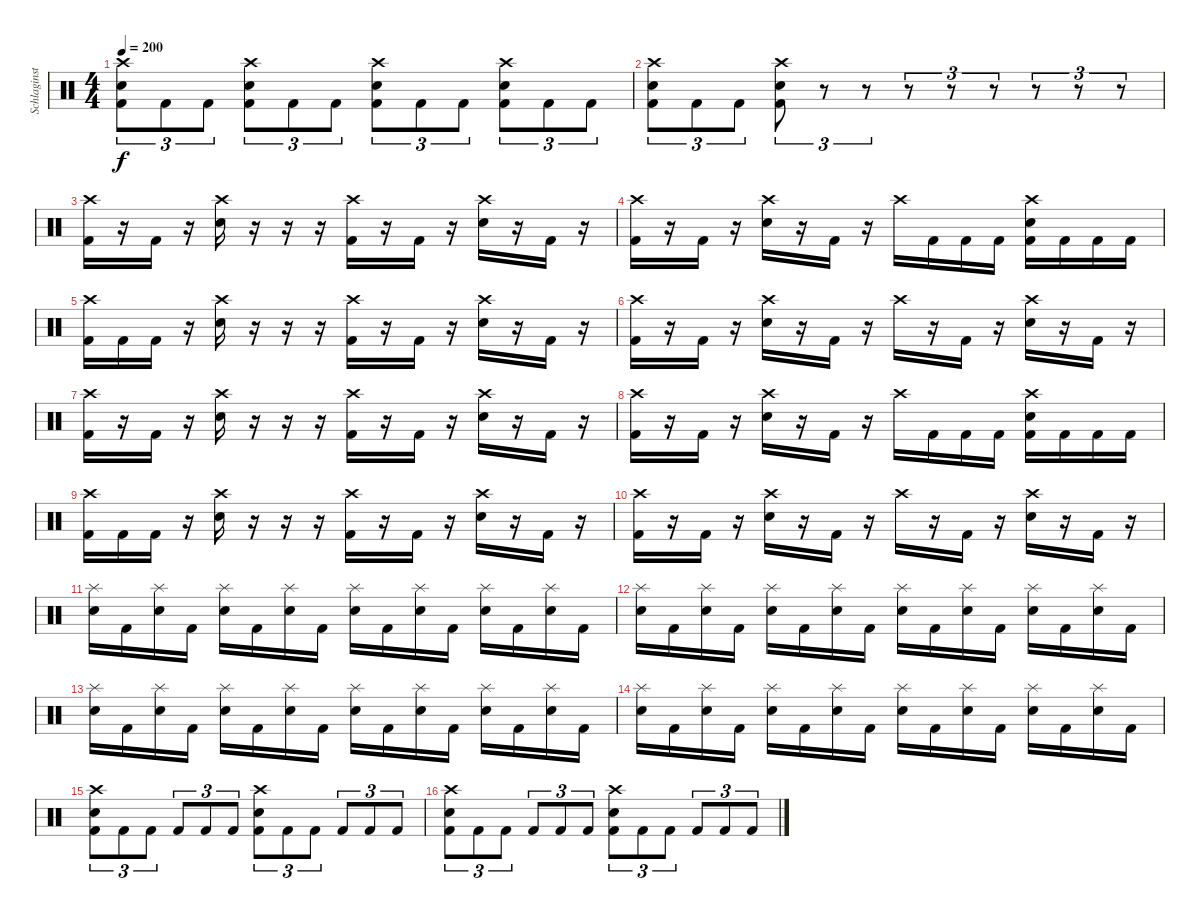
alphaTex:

\track ("Schlaginstrumente - Auswahl" "Schlaginst") {instrument percussion}
\staff {score}
\articulation defaults
\ts (4 4)
\tempo 200
\clef neutral
\ks c
("Crash high (hit)" "Electric Snare (hit)" "Kick (hit) 2").8{tu (3 2) dy f} "Kick (hit) 2".8{tu (3 2)} "Kick (hit) 2".8{tu (3 2)} ("Crash high (hit)" "Electric Snare (hit)" "Kick (hit) 2").8{tu (3 2)} "Kick (hit) 2".8{tu (3 2)} "Kick (hit) 2".8{tu (3 2)} ("Crash high (hit)" "Electric Snare (hit)" "Kick (hit) 2").8{tu (3 2)} "Kick (hit) 2".8{tu (3 2)} "Kick (hit) 2".8{tu (3 2)} ("Crash high (hit)" "Electric Snare (hit)" "Kick (hit) 2").8{tu (3 2)} "Kick (hit) 2".8{tu (3 2)} "Kick (hit) 2".8{tu (3 2)} |
("Crash high (hit)" "Electric Snare (hit)" "Kick (hit) 2").8{tu (3 2)} "Kick (hit) 2".8{tu (3 2)} "Kick (hit) 2".8{tu (3 2)} ("Crash high (hit)" "Electric Snare (hit)" "Kick (hit) 2").8{tu (3 2)} r.8{tu (3 2)} r.8{tu (3 2)} r.8{tu (3 2)} r.8{tu (3 2)} r.8{tu (3 2)} r.8{tu (3 2)} r.8{tu (3 2)} r.8{tu (3 2)} |
("Crash high (hit)" "Kick (hit) 2").16 r.16 "Kick (hit) 2".16 r.16 ("Crash high (hit)" "Electric Snare (hit)").16 r.16 r.16 r.16 ("Crash high (hit)" "Kick (hit) 2").16 r.16 "Kick (hit) 2".16 r.16 ("Crash high (hit)" "Electric Snare (hit)").16 r.16 "Kick (hit) 2".16 r.16 |
("Crash high (hit)" "Kick (hit) 2").16 r.16 "Kick (hit) 2".16 r.16 ("Crash high (hit)" "Electric Snare (hit)").16 r.16 "Kick (hit) 2".16 r.16 "Crash high (hit)".16 "Kick (hit) 2".16 "Kick (hit) 2".16 "Kick (hit) 2".16 ("Crash high (hit)" "Electric Snare (hit)" "Kick (hit) 2").16 "Kick (hit) 2".16 "Kick (hit) 2".16 "Kick (hit) 2".16 |
("Crash high (hit)" "Kick (hit) 2").16 "Kick (hit) 2".16 "Kick (hit) 2".16 r.16 ("Crash high (hit)" "Electric Snare (hit)").16 r.16 r.16 r.16 ("Crash high (hit)" "Kick (hit) 2").16 r.16 "Kick (hit) 2".16 r.16 ("Crash high (hit)" "Electric Snare (hit)").16 r.16 "Kick (hit) 2".16 r.16 |
("Crash high (hit)" "Kick (hit) 2").16 r.16 "Kick (hit) 2".16 r.16 ("Crash high (hit)" "Electric Snare (hit)").16 r.16 "Kick (hit) 2".16 r.16 "Crash high (hit)".16 r.16 "Kick (hit) 2".16 r.16 ("Crash high (hit)" "Electric Snare (hit)").16 r.16 "Kick (hit) 2".16 r.16 |
("Crash high (hit)" "Kick (hit) 2").16 r.16 "Kick (hit) 2".16 r.16 ("Crash high (hit)" "Electric Snare (hit)").16 r.16 r.16 r.16 ("Crash high (hit)" "Kick (hit) 2").16 r.16 "Kick (hit) 2".16 r.16 ("Crash high (hit)" "Electric Snare (hit)").16 r.16 "Kick (hit) 2".16 r.16 |
("Crash high (hit)" "Kick (hit) 2").16 r.16 "Kick (hit) 2".16 r.16 ("Crash high (hit)" "Electric Snare (hit)").16 r.16 "Kick (hit) 2".16 r.16 "Crash high (hit)".16 "Kick (hit) 2".16 "Kick (hit) 2".16 "Kick (hit) 2".16 ("Crash high (hit)" "Electric Snare (hit)" "Kick (hit) 2").16 "Kick (hit) 2".16 "Kick (hit) 2".16 "Kick (hit) 2".16 |
("Crash high (hit)" "Kick (hit) 2").16 "Kick (hit) 2".16 "Kick (hit) 2".16 r.16 ("Crash high (hit)" "Electric Snare (hit)").16 r.16 r.16 r.16 ("Crash high (hit)" "Kick (hit) 2").16 r.16 "Kick (hit) 2".16 r.16 ("Crash high (hit)" "Electric Snare (hit)").16 r.16 "Kick (hit) 2".16 r.16 |
("Crash high (hit)" "Kick (hit) 2").16 r.16 "Kick (hit) 2".16 r.16 ("Crash high (hit)" "Electric Snare (hit)").16 r.16 "Kick (hit) 2".16 r.16 "Crash high (hit)".16 r.16 "Kick (hit) 2".16 r.16 ("Crash high (hit)" "Electric Snare (hit)").16 r.16 "Kick (hit) 2".16 r.16 |
("Splash (hit)" "Electric Snare (hit)").16 "Kick (hit) 2".16 ("Splash (hit)" "Electric Snare (hit)").16 "Kick (hit) 2".16 ("Splash (hit)" "Electric Snare (hit)").16 "Kick (hit) 2".16 ("Splash (hit)" "Electric Snare (hit)").16 "Kick (hit) 2".16 ("Splash (hit)" "Electric Snare (hit)").16 "Kick (hit) 2".16 ("Splash (hit)" "Electric Snare (hit)").16 "Kick (hit) 2".16 ("Splash (hit)" "Electric Snare (hit)").16 "Kick (hit) 2".16 ("Splash (hit)" "Electric Snare (hit)").16 "Kick (hit) 2".16 |
("Splash (hit)" "Electric Snare (hit)").16 "Kick (hit) 2".16 ("Splash (hit)" "Electric Snare (hit)").16 "Kick (hit) 2".16 ("Splash (hit)" "Electric Snare (hit)").16 "Kick (hit) 2".16 ("Splash (hit)" "Electric Snare (hit)").16 "Kick (hit) 2".16 ("Splash (hit)" "Electric Snare (hit)").16 "Kick (hit) 2".16 ("Splash (hit)" "Electric Snare (hit)").16 "Kick (hit) 2".16 ("Splash (hit)" "Electric Snare (hit)").16 "Kick (hit) 2".16 ("Splash (hit)" "Electric Snare (hit)").16 "Kick (hit) 2".16 |
("Splash (hit)" "Electric Snare (hit)").16 "Kick (hit) 2".16 ("Splash (hit)" "Electric Snare (hit)").16 "Kick (hit) 2".16 ("Splash (hit)" "Electric Snare (hit)").16 "Kick (hit) 2".16 ("Splash (hit)" "Electric Snare (hit)").16 "Kick (hit) 2".16 ("Splash (hit)" "Electric Snare (hit)").16 "Kick (hit) 2".16 ("Splash (hit)" "Electric Snare (hit)").16 "Kick (hit) 2".16 ("Splash (hit)" "Electric Snare (hit)").16 "Kick (hit) 2".16 ("Splash (hit)" "Electric Snare (hit)").16 "Kick (hit) 2".16 |
("Splash (hit)" "Electric Snare (hit)").16 "Kick (hit) 2".16 ("Splash (hit)" "Electric Snare (hit)").16 "Kick (hit) 2".16 ("Splash (hit)" "Electric Snare (hit)").16 "Kick (hit) 2".16 ("Splash (hit)" "Electric Snare (hit)").16 "Kick (hit) 2".16 ("Splash (hit)" "Electric Snare (hit)").16 "Kick (hit) 2".16 ("Splash (hit)" "Electric Snare (hit)").16 "Kick (hit) 2".16 ("Splash (hit)" "Electric Snare (hit)").16 "Kick (hit) 2".16 ("Splash (hit)" "Electric Snare (hit)").16 "Kick (hit) 2".16 |
("Crash high (hit)" "Electric Snare (hit)" "Kick (hit) 2").8{tu (3 2)} "Kick (hit) 2".8{tu (3 2)} "Kick (hit) 2".8{tu (3 2)} "Kick (hit) 2".8{tu (3 2)} "Kick (hit) 2".8{tu (3 2)} "Kick (hit) 2".8{tu (3 2)} ("Crash high (hit)" "Electric Snare (hit)" "Kick (hit) 2").8{tu (3 2)} "Kick (hit) 2".8{tu (3 2)} "Kick (hit) 2".8{tu (3 2)} "Kick (hit) 2".8{tu (3 2)} "Kick (hit) 2".8{tu (3 2)} "Kick (hit) 2".8{tu (3 2)} |
("Crash high (hit)" "Electric Snare (hit)" "Kick (hit) 2").8{tu (3 2)} "Kick (hit) 2".8{tu (3 2)} "Kick (hit) 2".8{tu (3 2)} "Kick (hit) 2".8{tu (3 2)} "Kick (hit) 2".8{tu (3 2)} "Kick (hit) 2".8{tu (3 2)} ("Crash high (hit)" "Electric Snare (hit)" "Kick (hit) 2").8{tu (3 2)} "Kick (hit) 2".8{tu (3 2)} "Kick (hit) 2".8{tu (3 2)} "Kick (hit) 2".8{tu (3 2)} "Kick (hit) 2".8{tu (3 2)} "Kick (hit) 2".8{tu (3 2)}
